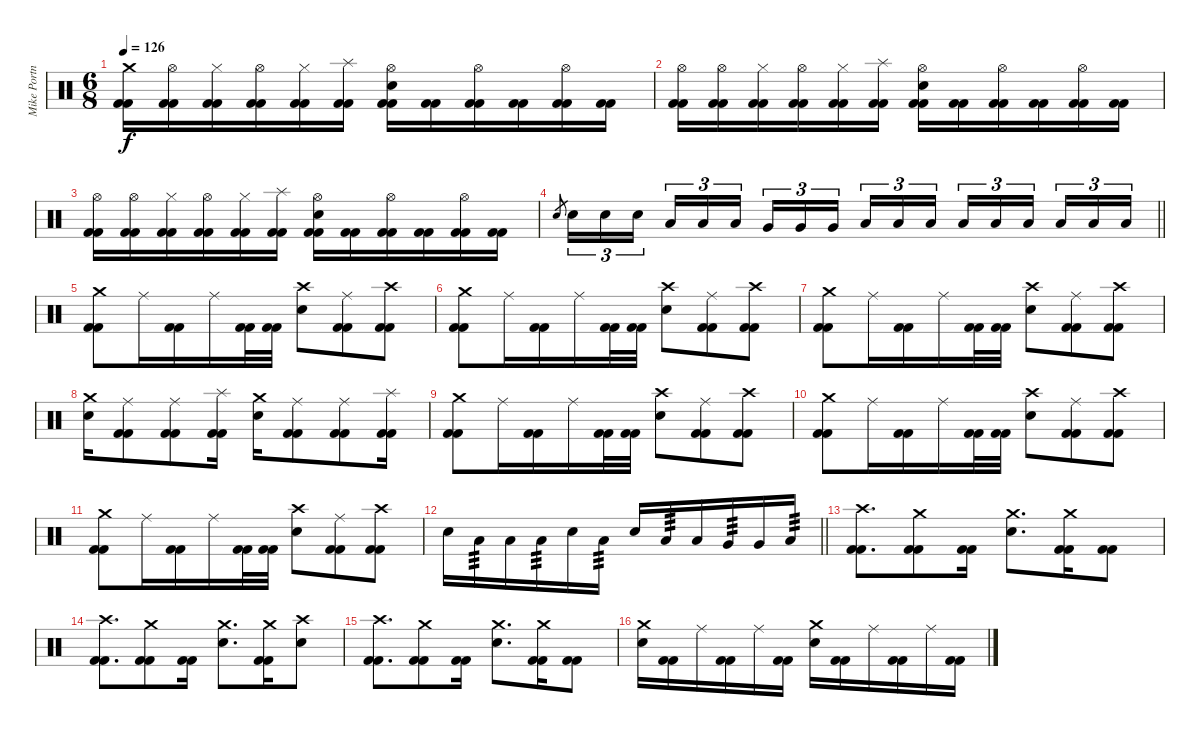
\track ("Mike Portnoy" "Mike Portn") {instrument percussion}
\staff {score}
\articulation defaults
\ts (6 8)
\tempo 126
\clef neutral
\ks c
("Crash medium (hit)" "Kick (hit) 2" "Kick (hit) 2").16{dy f} ("Hi-Hat (open)" "Kick (hit) 2" "Kick (hit) 2").16 ("Hi-Hat (closed)" "Kick (hit) 2" "Kick (hit) 2").16 ("Hi-Hat (open)" "Kick (hit) 2" "Kick (hit) 2").16 ("Hi-Hat (closed)" "Kick (hit) 2" "Kick (hit) 2").16 ("Splash (hit)" "Kick (hit) 2" "Kick (hit) 2").16 ("Hi-Hat (open)" "Electric Snare (hit)" "Kick (hit) 2" "Kick (hit) 2").16 ("Kick (hit) 2" "Kick (hit) 2").16 ("Hi-Hat (open)" "Kick (hit) 2" "Kick (hit) 2").16 ("Kick (hit) 2" "Kick (hit) 2").16 ("Hi-Hat (open)" "Kick (hit) 2" "Kick (hit) 2").16 ("Kick (hit) 2" "Kick (hit) 2").16 |
("Hi-Hat (open)" "Kick (hit) 2" "Kick (hit) 2").16 ("Hi-Hat (open)" "Kick (hit) 2" "Kick (hit) 2").16 ("Hi-Hat (closed)" "Kick (hit) 2" "Kick (hit) 2").16 ("Hi-Hat (open)" "Kick (hit) 2" "Kick (hit) 2").16 ("Hi-Hat (closed)" "Kick (hit) 2" "Kick (hit) 2").16 ("Splash (hit)" "Kick (hit) 2" "Kick (hit) 2").16 ("Hi-Hat (open)" "Electric Snare (hit)" "Kick (hit) 2" "Kick (hit) 2").16 ("Kick (hit) 2" "Kick (hit) 2").16 ("Hi-Hat (open)" "Kick (hit) 2" "Kick (hit) 2").16 ("Kick (hit) 2" "Kick (hit) 2").16 ("Hi-Hat (open)" "Kick (hit) 2" "Kick (hit) 2").16 ("Kick (hit) 2" "Kick (hit) 2").16 |
("Hi-Hat (open)" "Kick (hit) 2" "Kick (hit) 2").16 ("Hi-Hat (open)" "Kick (hit) 2" "Kick (hit) 2").16 ("Hi-Hat (closed)" "Kick (hit) 2" "Kick (hit) 2").16 ("Hi-Hat (open)" "Kick (hit) 2" "Kick (hit) 2").16 ("Hi-Hat (closed)" "Kick (hit) 2" "Kick (hit) 2").16 ("Splash (hit)" "Kick (hit) 2" "Kick (hit) 2").16 ("Hi-Hat (open)" "Electric Snare (hit)" "Kick (hit) 2" "Kick (hit) 2").16 ("Kick (hit) 2" "Kick (hit) 2").16 ("Hi-Hat (open)" "Kick (hit) 2" "Kick (hit) 2").16 ("Kick (hit) 2" "Kick (hit) 2").16 ("Hi-Hat (open)" "Kick (hit) 2" "Kick (hit) 2").16 ("Kick (hit) 2" "Kick (hit) 2").16 |
\barLineRight lightlight "Electric Snare (hit)".8{gr} "Electric Snare (hit)".16{tu (3 2)} "Electric Snare (hit)".16{tu (3 2)} "Electric Snare (hit)".16{tu (3 2) beam splitsecondary} "Low Tom (hit)".16{tu (3 2)} "Low Tom (hit)".16{tu (3 2)} "Low Tom (hit)".16{tu (3 2) beam splitsecondary} "Very Low Tom (hit)".16{tu (3 2)} "Very Low Tom (hit)".16{tu (3 2)} "Very Low Tom (hit)".16{tu (3 2)} "Low Floor Tom (hit)".16{tu (3 2)} "Low Floor Tom (hit)".16{tu (3 2)} "Low Floor Tom (hit)".16{tu (3 2) beam splitsecondary} "Low Tom (hit)".16{tu (3 2)} "Low Tom (hit)".16{tu (3 2)} "Low Tom (hit)".16{tu (3 2) beam splitsecondary} "Low Floor Tom (hit)".16{tu (3 2)} "Low Floor Tom (hit)".16{tu (3 2)} "Low Floor Tom (hit)".16{tu (3 2)}
|
("Crash medium (hit)" "Kick (hit) 2" "Kick (hit) 2").8 "Ride (middle)".16 ("Kick (hit) 2" "Kick (hit) 2").16 "Ride (middle)".16 ("Kick (hit) 2" "Kick (hit) 2").32 ("Kick (hit) 2" "Kick (hit) 2").32 ("Crash high (hit)" "Electric Snare (hit)").8 ("Ride (middle)" "Kick (hit) 2" "Kick (hit) 2").8 ("Crash high (hit)" "Kick (hit) 2" "Kick (hit) 2").8 |
("Crash medium (hit)" "Kick (hit) 2" "Kick (hit) 2").8 "Ride (middle)".16 ("Kick (hit) 2" "Kick (hit) 2").16 "Ride (middle)".16 ("Kick (hit) 2" "Kick (hit) 2").32 ("Kick (hit) 2" "Kick (hit) 2").32 ("Crash high (hit)" "Electric Snare (hit)").8 ("Ride (middle)" "Kick (hit) 2" "Kick (hit) 2").8 ("Crash high (hit)" "Kick (hit) 2" "Kick (hit) 2").8 |
("Crash medium (hit)" "Kick (hit) 2" "Kick (hit) 2").8 "Ride (middle)".16 ("Kick (hit) 2" "Kick (hit) 2").16 "Ride (middle)".16 ("Kick (hit) 2" "Kick (hit) 2").32 ("Kick (hit) 2" "Kick (hit) 2").32 ("Crash high (hit)" "Electric Snare (hit)").8 ("Ride (middle)" "Kick (hit) 2" "Kick (hit) 2").8 ("Crash high (hit)" "Kick (hit) 2" "Kick (hit) 2").8 |
("Crash medium (hit)" "Electric Snare (hit)").16 ("Ride (middle)" "Kick (hit) 2" "Kick (hit) 2").8 ("Ride (middle)" "Kick (hit) 2" "Kick (hit) 2").8 ("Splash (hit)" "Kick (hit) 2" "Kick (hit) 2").16 ("Crash medium (hit)" "Electric Snare (hit)").16 ("Ride (middle)" "Kick (hit) 2" "Kick (hit) 2").8 ("Ride (middle)" "Kick (hit) 2" "Kick (hit) 2").8 ("Splash (hit)" "Kick (hit) 2" "Kick (hit) 2").16 |
("Crash medium (hit)" "Kick (hit) 2" "Kick (hit) 2").8 "Ride (middle)".16 ("Kick (hit) 2" "Kick (hit) 2").16 "Ride (middle)".16 ("Kick (hit) 2" "Kick (hit) 2").32 ("Kick (hit) 2" "Kick (hit) 2").32 ("Crash high (hit)" "Electric Snare (hit)").8 ("Ride (middle)" "Kick (hit) 2" "Kick (hit) 2").8 ("Crash high (hit)" "Kick (hit) 2" "Kick (hit) 2").8 |
("Crash medium (hit)" "Kick (hit) 2" "Kick (hit) 2").8 "Ride (middle)".16 ("Kick (hit) 2" "Kick (hit) 2").16 "Ride (middle)".16 ("Kick (hit) 2" "Kick (hit) 2").32 ("Kick (hit) 2" "Kick (hit) 2").32 ("Crash high (hit)" "Electric Snare (hit)").8 ("Ride (middle)" "Kick (hit) 2" "Kick (hit) 2").8 ("Crash high (hit)" "Kick (hit) 2" "Kick (hit) 2").8 |
("Crash medium (hit)" "Kick (hit) 2" "Kick (hit) 2").8 "Ride (middle)".16 ("Kick (hit) 2" "Kick (hit) 2").16 "Ride (middle)".16 ("Kick (hit) 2" "Kick (hit) 2").32 ("Kick (hit) 2" "Kick (hit) 2").32 ("Crash high (hit)" "Electric Snare (hit)").8 ("Ride (middle)" "Kick (hit) 2" "Kick (hit) 2").8 ("Crash high (hit)" "Kick (hit) 2" "Kick (hit) 2").8 |
\barLineRight lightlight "Electric Snare (hit)".16 "Low Tom (hit)".16{tp 3} "Low Tom (hit)".16 "Low Tom (hit)".16{tp 3} "Electric Snare (hit)".16 "Low Tom (hit)".16{tp 3} "Electric Snare (hit)".16 "Low Tom (hit)".16{tp 3} "Low Tom (hit)".16 "Very Low Tom (hit)".16{tp 3} "Very Low Tom (hit)".16 "Low Floor Tom (hit)".16{tp 3}
|
("Crash high (hit)" "Kick (hit) 2" "Kick (hit) 2").8{d} ("Crash medium (hit)" "Kick (hit) 2" "Kick (hit) 2").8 ("Kick (hit) 2" "Kick (hit) 2").16 ("Crash medium (hit)" "Electric Snare (hit)").8{d} ("Crash medium (hit)" "Kick (hit) 2" "Kick (hit) 2").16 ("Kick (hit) 2" "Kick (hit) 2").8 |
("Crash high (hit)" "Kick (hit) 2" "Kick (hit) 2").8{d} ("Crash medium (hit)" "Kick (hit) 2" "Kick (hit) 2").8 ("Kick (hit) 2" "Kick (hit) 2").16 ("Crash medium (hit)" "Electric Snare (hit)").8{d} ("Crash medium (hit)" "Kick (hit) 2" "Kick (hit) 2").16 ("Crash high (hit)" "Electric Snare (hit)").8 |
("Crash high (hit)" "Kick (hit) 2" "Kick (hit) 2").8{d} ("Crash medium (hit)" "Kick (hit) 2" "Kick (hit) 2").8 ("Kick (hit) 2" "Kick (hit) 2").16 ("Crash medium (hit)" "Electric Snare (hit)").8{d} ("Crash medium (hit)" "Kick (hit) 2" "Kick (hit) 2").16 ("Kick (hit) 2" "Kick (hit) 2").8 |
("Crash medium (hit)" "Electric Snare (hit)").16 ("Kick (hit) 2" "Kick (hit) 2").16 "Ride (middle)".16 ("Kick (hit) 2" "Kick (hit) 2").16 "Ride (middle)".16 ("Kick (hit) 2" "Kick (hit) 2").16 ("Crash medium (hit)" "Electric Snare (hit)").16 ("Kick (hit) 2" "Kick (hit) 2").16 "Ride (middle)".16 ("Kick (hit) 2" "Kick (hit) 2").16 "Ride (middle)".16 ("Kick (hit) 2" "Kick (hit) 2").16
